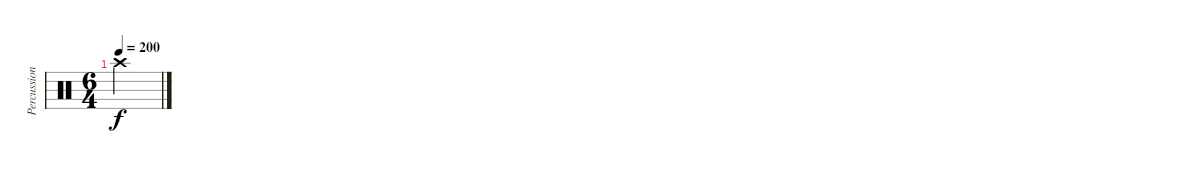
\track ("Percussion" "Percussion") {instrument percussion}
\staff {score}
\articulation defaults
\ts (6 4)
\tempo 200
\clef neutral
\ks c "Crash high (hit)".2{dy f}
